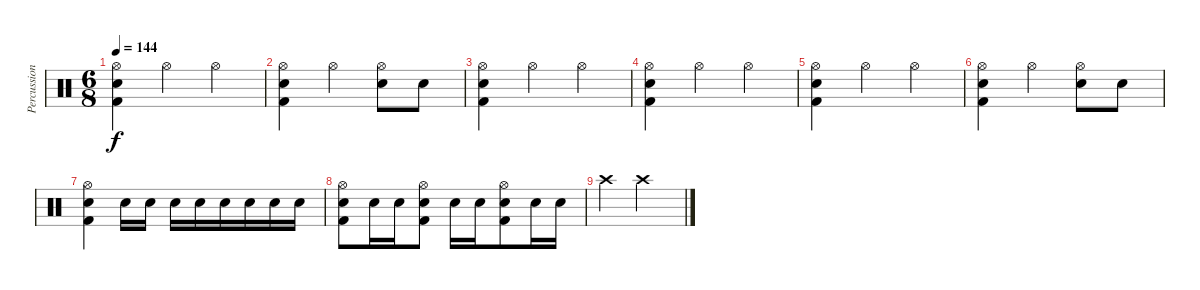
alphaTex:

\track ("Percussion" "Percussion") {instrument percussion}
\staff {score}
\articulation defaults
\ts (6 8)
\tempo 144
\clef neutral
\ks c
("Hi-Hat (open)" "Electric Snare (hit)" "Kick (hit) 2").4{dy f} "Hi-Hat (open)".4 "Hi-Hat (open)".4 |
("Hi-Hat (open)" "Electric Snare (hit)" "Kick (hit) 2").4 "Hi-Hat (open)".4 ("Hi-Hat (open)" "Electric Snare (hit)").8 "Electric Snare (hit)".8 |
("Hi-Hat (open)" "Electric Snare (hit)" "Kick (hit) 2").4 "Hi-Hat (open)".4 "Hi-Hat (open)".4 |
("Hi-Hat (open)" "Electric Snare (hit)" "Kick (hit) 2").4 "Hi-Hat (open)".4 "Hi-Hat (open)".4 |
("Hi-Hat (open)" "Electric Snare (hit)" "Kick (hit) 2").4 "Hi-Hat (open)".4 "Hi-Hat (open)".4 |
("Hi-Hat (open)" "Electric Snare (hit)" "Kick (hit) 2").4 "Hi-Hat (open)".4 ("Hi-Hat (open)" "Electric Snare (hit)").8 "Electric Snare (hit)".8 |
("Hi-Hat (open)" "Electric Snare (hit)" "Kick (hit) 2").4 "Electric Snare (hit)".16 "Electric Snare (hit)".16 "Electric Snare (hit)".16 "Electric Snare (hit)".16 "Electric Snare (hit)".16 "Electric Snare (hit)".16 "Electric Snare (hit)".16 "Electric Snare (hit)".16 |
("Hi-Hat (open)" "Electric Snare (hit)" "Kick (hit) 2").8 "Electric Snare (hit)".16 "Electric Snare (hit)".16 ("Hi-Hat (open)" "Electric Snare (hit)" "Kick (hit) 2").8 "Electric Snare (hit)".16 "Electric Snare (hit)".16 ("Hi-Hat (open)" "Electric Snare (hit)" "Kick (hit) 2").8 "Electric Snare (hit)".16 "Electric Snare (hit)".16 |
"Crash high (hit)".4 "Crash high (hit)".2
